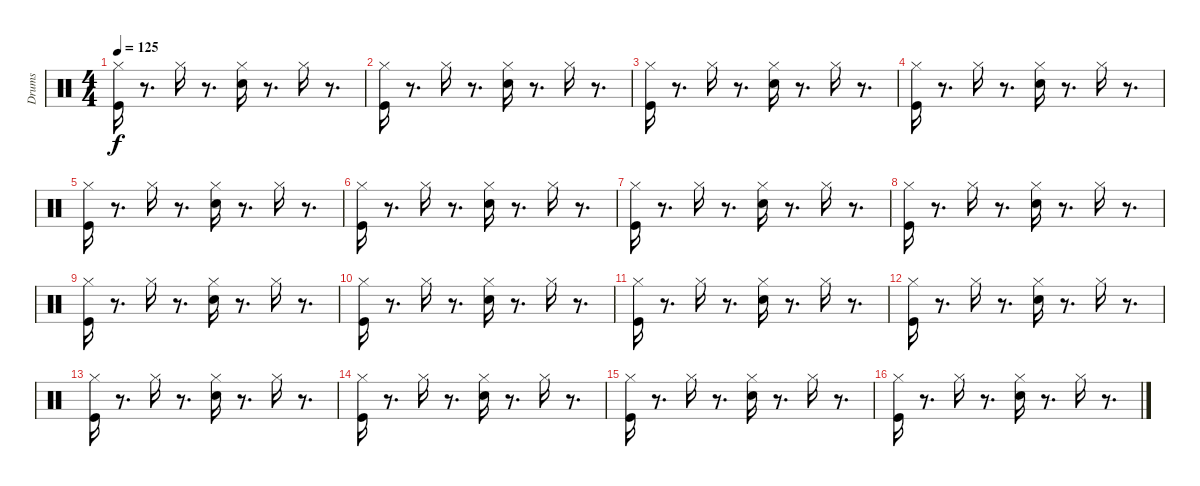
\track ("Drums" "Drums") {instrument percussion}
\staff {score}
\articulation defaults
\ts (4 4)
\tempo 125
\clef neutral
\ks c
("Kick (hit)" "Hi-Hat (closed)").16{dy f} r.8{d} "Hi-Hat (closed)".16 r.8{d} ("Snare (hit) 2" "Hi-Hat (closed)").16 r.8{d} "Hi-Hat (closed)".16 r.8{d} |
("Kick (hit)" "Hi-Hat (closed)").16 r.8{d} "Hi-Hat (closed)".16 r.8{d} ("Snare (hit) 2" "Hi-Hat (closed)").16 r.8{d} "Hi-Hat (closed)".16 r.8{d} |
("Kick (hit)" "Hi-Hat (closed)").16 r.8{d} "Hi-Hat (closed)".16 r.8{d} ("Snare (hit) 2" "Hi-Hat (closed)").16 r.8{d} "Hi-Hat (closed)".16 r.8{d} |
("Kick (hit)" "Hi-Hat (closed)").16 r.8{d} "Hi-Hat (closed)".16 r.8{d} ("Snare (hit) 2" "Hi-Hat (closed)").16 r.8{d} "Hi-Hat (closed)".16 r.8{d} |
("Kick (hit)" "Hi-Hat (closed)").16 r.8{d} "Hi-Hat (closed)".16 r.8{d} ("Snare (hit) 2" "Hi-Hat (closed)").16 r.8{d} "Hi-Hat (closed)".16 r.8{d} |
("Kick (hit)" "Hi-Hat (closed)").16 r.8{d} "Hi-Hat (closed)".16 r.8{d} ("Snare (hit) 2" "Hi-Hat (closed)").16 r.8{d} "Hi-Hat (closed)".16 r.8{d} |
("Kick (hit)" "Hi-Hat (closed)").16 r.8{d} "Hi-Hat (closed)".16 r.8{d} ("Snare (hit) 2" "Hi-Hat (closed)").16 r.8{d} "Hi-Hat (closed)".16 r.8{d} |
("Kick (hit)" "Hi-Hat (closed)").16 r.8{d} "Hi-Hat (closed)".16 r.8{d} ("Snare (hit) 2" "Hi-Hat (closed)").16 r.8{d} "Hi-Hat (closed)".16 r.8{d} |
("Kick (hit)" "Hi-Hat (closed)").16 r.8{d} "Hi-Hat (closed)".16 r.8{d} ("Snare (hit) 2" "Hi-Hat (closed)").16 r.8{d} "Hi-Hat (closed)".16 r.8{d} |
("Kick (hit)" "Hi-Hat (closed)").16 r.8{d} "Hi-Hat (closed)".16 r.8{d} ("Snare (hit) 2" "Hi-Hat (closed)").16 r.8{d} "Hi-Hat (closed)".16 r.8{d} |
("Kick (hit)" "Hi-Hat (closed)").16 r.8{d} "Hi-Hat (closed)".16 r.8{d} ("Snare (hit) 2" "Hi-Hat (closed)").16 r.8{d} "Hi-Hat (closed)".16 r.8{d} |
("Kick (hit)" "Hi-Hat (closed)").16 r.8{d} "Hi-Hat (closed)".16 r.8{d} ("Snare (hit) 2" "Hi-Hat (closed)").16 r.8{d} "Hi-Hat (closed)".16 r.8{d} |
("Kick (hit)" "Hi-Hat (closed)").16 r.8{d} "Hi-Hat (closed)".16 r.8{d} ("Snare (hit) 2" "Hi-Hat (closed)").16 r.8{d} "Hi-Hat (closed)".16 r.8{d} |
("Kick (hit)" "Hi-Hat (closed)").16 r.8{d} "Hi-Hat (closed)".16 r.8{d} ("Snare (hit) 2" "Hi-Hat (closed)").16 r.8{d} "Hi-Hat (closed)".16 r.8{d} |
("Kick (hit)" "Hi-Hat (closed)").16 r.8{d} "Hi-Hat (closed)".16 r.8{d} ("Snare (hit) 2" "Hi-Hat (closed)").16 r.8{d} "Hi-Hat (closed)".16 r.8{d} |
("Kick (hit)" "Hi-Hat (closed)").16 r.8{d} "Hi-Hat (closed)".16 r.8{d} ("Snare (hit) 2" "Hi-Hat (closed)").16 r.8{d} "Hi-Hat (closed)".16 r.8{d}
